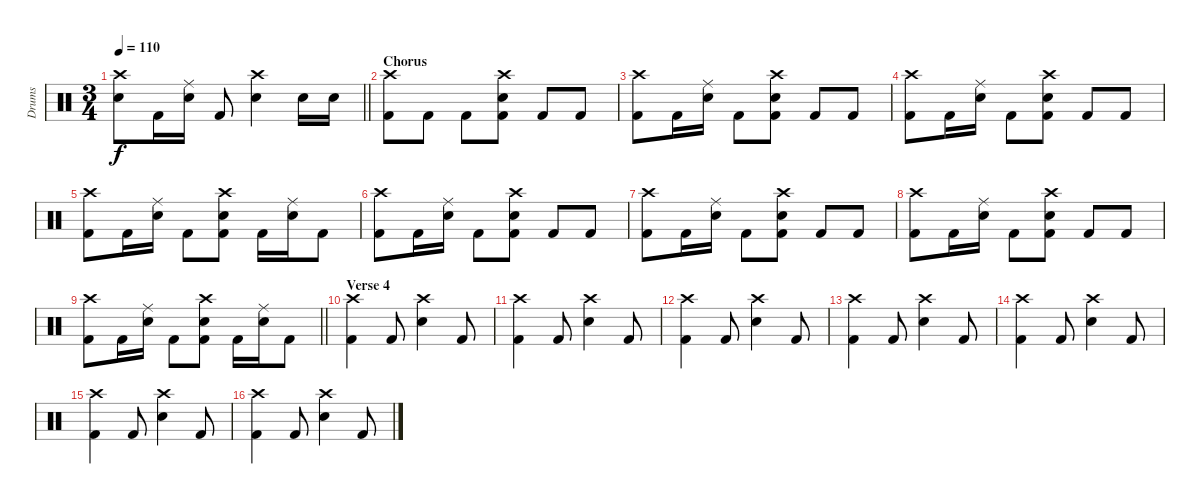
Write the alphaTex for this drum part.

\track ("Drums" "Drums") {instrument percussion}
\staff {score}
\articulation defaults
\ts (3 4)
\tempo 110
\clef neutral
\barLineRight lightlight
\ks c
("Crash high (hit)" "Snare (hit) 2").8{dy f} "Kick (hit) 2".16 ("Ride (middle)" "Snare (hit) 2").16 "Kick (hit) 2".8 ("Crash high (hit)" "Snare (hit) 2").4 "Snare (hit) 2".16 "Snare (hit) 2".16 |
\section ("" "Chorus")
("Crash high (hit)" "Kick (hit) 2").8 "Kick (hit) 2".8 "Kick (hit) 2".8 ("Crash high (hit)" "Snare (hit) 2" "Kick (hit) 2").8 "Kick (hit) 2".8 "Kick (hit) 2".8 |
("Crash high (hit)" "Kick (hit) 2").8 "Kick (hit) 2".16 ("Ride (middle)" "Snare (hit) 2").16 "Kick (hit) 2".8 ("Crash high (hit)" "Snare (hit) 2" "Kick (hit) 2").8 "Kick (hit) 2".8 "Kick (hit) 2".8 |
("Crash high (hit)" "Kick (hit) 2").8 "Kick (hit) 2".16 ("Ride (middle)" "Snare (hit) 2").16 "Kick (hit) 2".8 ("Crash high (hit)" "Snare (hit) 2" "Kick (hit) 2").8 "Kick (hit) 2".8 "Kick (hit) 2".8 |
("Crash high (hit)" "Kick (hit) 2").8 "Kick (hit) 2".16 ("Ride (middle)" "Snare (hit) 2").16 "Kick (hit) 2".8 ("Crash high (hit)" "Snare (hit) 2" "Kick (hit) 2").8 "Kick (hit) 2".16 ("Ride (middle)" "Snare (hit) 2").16 "Kick (hit) 2".8 |
("Crash high (hit)" "Kick (hit) 2").8 "Kick (hit) 2".16 ("Ride (middle)" "Snare (hit) 2").16 "Kick (hit) 2".8 ("Crash high (hit)" "Snare (hit) 2" "Kick (hit) 2").8 "Kick (hit) 2".8 "Kick (hit) 2".8 |
("Crash high (hit)" "Kick (hit) 2").8 "Kick (hit) 2".16 ("Ride (middle)" "Snare (hit) 2").16 "Kick (hit) 2".8 ("Crash high (hit)" "Snare (hit) 2" "Kick (hit) 2").8 "Kick (hit) 2".8 "Kick (hit) 2".8 |
("Crash high (hit)" "Kick (hit) 2").8 "Kick (hit) 2".16 ("Ride (middle)" "Snare (hit) 2").16 "Kick (hit) 2".8 ("Crash high (hit)" "Snare (hit) 2" "Kick (hit) 2").8 "Kick (hit) 2".8 "Kick (hit) 2".8 |
\barLineRight lightlight
("Crash high (hit)" "Kick (hit) 2").8 "Kick (hit) 2".16 ("Ride (middle)" "Snare (hit) 2").16 "Kick (hit) 2".8 ("Crash high (hit)" "Snare (hit) 2" "Kick (hit) 2").8 "Kick (hit) 2".16 ("Ride (middle)" "Snare (hit) 2").16 "Kick (hit) 2".8 |
\section ("" "Verse 4")
("Crash high (hit)" "Kick (hit) 2").4 "Kick (hit) 2".8 ("Crash high (hit)" "Snare (hit) 2").4 "Kick (hit) 2".8 |
("Crash high (hit)" "Kick (hit) 2").4 "Kick (hit) 2".8 ("Crash high (hit)" "Snare (hit) 2").4 "Kick (hit) 2".8 |
("Crash high (hit)" "Kick (hit) 2").4 "Kick (hit) 2".8 ("Crash high (hit)" "Snare (hit) 2").4 "Kick (hit) 2".8 |
("Crash high (hit)" "Kick (hit) 2").4 "Kick (hit) 2".8 ("Crash high (hit)" "Snare (hit) 2").4 "Kick (hit) 2".8 |
("Crash high (hit)" "Kick (hit) 2").4 "Kick (hit) 2".8 ("Crash high (hit)" "Snare (hit) 2").4 "Kick (hit) 2".8 |
("Crash high (hit)" "Kick (hit) 2").4 "Kick (hit) 2".8 ("Crash high (hit)" "Snare (hit) 2").4 "Kick (hit) 2".8 |
("Crash high (hit)" "Kick (hit) 2").4 "Kick (hit) 2".8 ("Crash high (hit)" "Snare (hit) 2").4 "Kick (hit) 2".8
